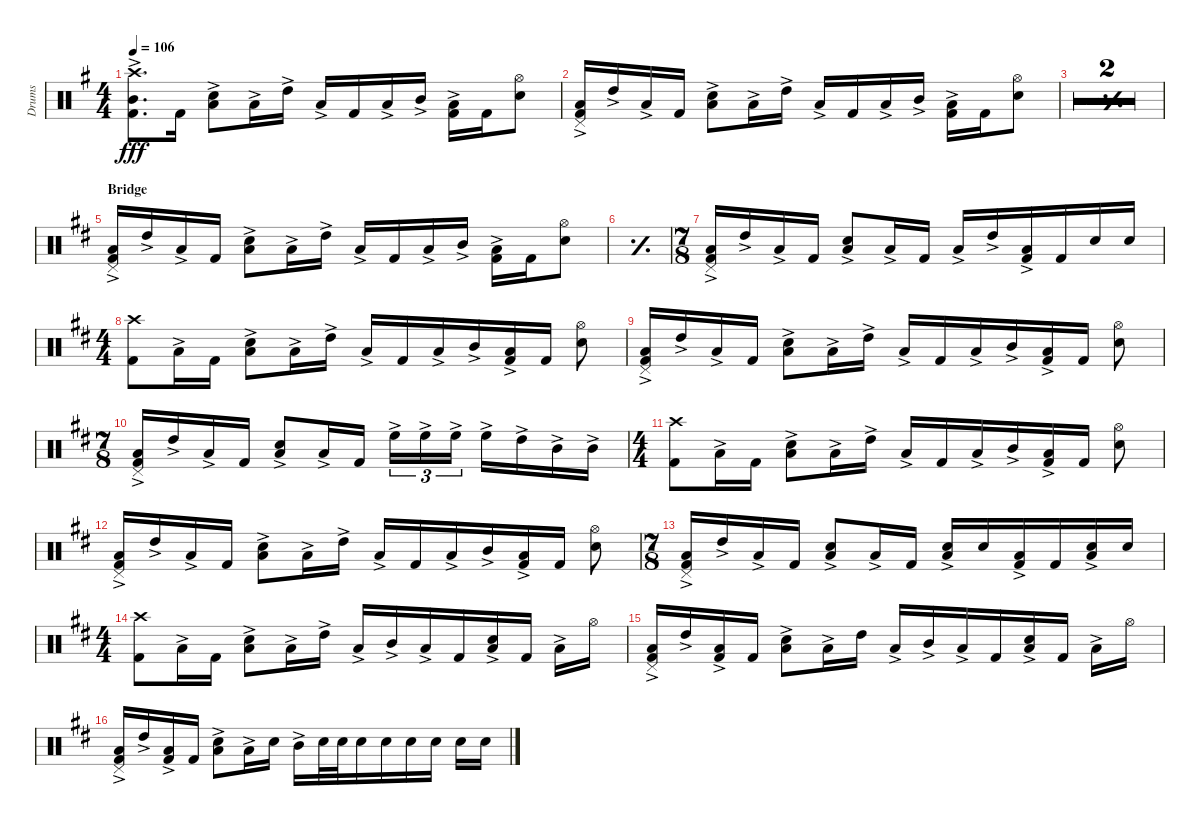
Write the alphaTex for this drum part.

\defaultSystemsLayout 4
\bracketExtendMode groupsimilarinstruments
\otherSystemsTrackNameOrientation horizontal
\track ("Drumkit" "Drums") {multiBarRest instrument percussion}
\staff {score}
\articulation defaults
\ts (4 4)
\tempo 106
\clef neutral
\ks g
("Kick (hit) 2"{acc forcenatural} "Mid Tom (hit)"{ac acc forcenatural} "Crash high (hit)"{acc forcenatural}).8{d dy fff} "Kick (hit) 2"{acc forcenatural}.16 ("Snare (hit) 2"{acc forcenatural} "Low Tom (hit)"{ac acc forcenatural}).8 "Low Tom (hit)"{ac acc forcenatural}.16 "High Tom (hit)"{ac acc forcenatural}.16 "Low Tom (hit)"{ac acc forcenatural}.16 "Kick (hit) 2"{acc forcenatural}.16 "Low Tom (hit)"{ac acc forcenatural}.16 "Mid Tom (hit)"{ac acc forcenatural}.16 ("Kick (hit) 2"{acc forcenatural} "Low Tom (hit)"{ac acc forcenatural}).16 "Kick (hit) 2"{acc forcenatural}.16 ("Snare (hit) 2"{acc forcenatural} "Hi-Hat (open)"{acc forcenatural}).8 |
("Kick (hit) 2"{acc forcenatural} "Low Tom (hit)"{ac acc forcenatural} "Pedal Hi-Hat (hit)"{acc forcenatural}).16 "High Tom (hit)"{ac acc forcenatural}.16 "Low Tom (hit)"{ac acc forcenatural}.16 "Kick (hit) 2"{acc forcenatural}.16 ("Snare (hit) 2"{acc forcenatural} "Low Tom (hit)"{ac acc forcenatural}).8 "Low Tom (hit)"{ac acc forcenatural}.16 "High Tom (hit)"{ac acc forcenatural}.16 "Low Tom (hit)"{ac acc forcenatural}.16 "Kick (hit) 2"{acc forcenatural}.16 "Low Tom (hit)"{ac acc forcenatural}.16 "Mid Tom (hit)"{ac acc forcenatural}.16 ("Kick (hit) 2"{acc forcenatural} "Low Tom (hit)"{ac acc forcenatural}).16 "Kick (hit) 2"{acc forcenatural}.16 ("Snare (hit) 2"{acc forcenatural} "Hi-Hat (open)"{acc forcenatural}).8 |
\simile simple
|
|
\section ("" "Bridge")
\simile none
\ks d
("Kick (hit) 2"{acc forcenatural} "Low Tom (hit)"{ac acc forcenatural} "Pedal Hi-Hat (hit)"{acc forcenatural}).16 "High Tom (hit)"{ac acc forcenatural}.16 "Low Tom (hit)"{ac acc forcenatural}.16 "Kick (hit) 2"{acc forcenatural}.16 ("Snare (hit) 2"{acc forcenatural} "Low Tom (hit)"{ac acc forcenatural}).8 "Low Tom (hit)"{ac acc forcenatural}.16 "High Tom (hit)"{ac acc forcenatural}.16 "Low Tom (hit)"{ac acc forcenatural}.16 "Kick (hit) 2"{acc forcenatural}.16 "Low Tom (hit)"{ac acc forcenatural}.16 "Mid Tom (hit)"{ac acc forcenatural}.16 ("Kick (hit) 2"{acc forcenatural} "Low Tom (hit)"{ac acc forcenatural}).16 "Kick (hit) 2"{acc forcenatural}.16 ("Snare (hit) 2"{acc forcenatural} "Hi-Hat (open)"{acc forcenatural}).8 |
\simile simple
|
\ts (7 8)
\beaming (8 2 2 3)
\simile none
("Kick (hit) 2"{acc forcenatural} "Low Tom (hit)"{ac acc forcenatural} "Pedal Hi-Hat (hit)"{acc forcenatural}).16 "High Tom (hit)"{ac acc forcenatural}.16 "Low Tom (hit)"{ac acc forcenatural}.16 "Kick (hit) 2"{acc forcenatural}.16 ("Snare (hit) 2"{acc forcenatural} "Low Tom (hit)"{ac acc forcenatural}).8 "Low Tom (hit)"{ac acc forcenatural}.16 "Kick (hit) 2"{acc forcenatural}.16 "Low Tom (hit)"{ac acc forcenatural}.16 "High Tom (hit)"{ac acc forcenatural}.16 ("Low Tom (hit)"{ac acc forcenatural} "Kick (hit) 2"{acc forcenatural}).16 "Kick (hit) 2"{acc forcenatural}.16 "Snare (hit) 2"{acc forcenatural}.16 "Snare (hit) 2"{acc forcenatural}.16 |
\ts (4 4)
("Kick (hit) 2"{acc forcenatural} "Crash high (hit)"{acc forcenatural}).8 "Low Tom (hit)"{ac acc forcenatural}.16 "Kick (hit) 2"{acc forcenatural}.16 ("Snare (hit) 2"{acc forcenatural} "Low Tom (hit)"{ac acc forcenatural}).8 "Low Tom (hit)"{ac acc forcenatural}.16 "High Tom (hit)"{ac acc forcenatural}.16 "Low Tom (hit)"{ac acc forcenatural}.16 "Kick (hit) 2"{acc forcenatural}.16 "Low Tom (hit)"{ac acc forcenatural}.16 "Mid Tom (hit)"{ac acc forcenatural}.16 ("Kick (hit) 2"{acc forcenatural} "Low Tom (hit)"{ac acc forcenatural}).16 "Kick (hit) 2"{acc forcenatural}.16 ("Snare (hit) 2"{acc forcenatural} "Hi-Hat (open)"{acc forcenatural}).8 |
("Kick (hit) 2"{acc forcenatural} "Low Tom (hit)"{ac acc forcenatural} "Pedal Hi-Hat (hit)"{acc forcenatural}).16 "High Tom (hit)"{ac acc forcenatural}.16 "Low Tom (hit)"{ac acc forcenatural}.16 "Kick (hit) 2"{acc forcenatural}.16 ("Snare (hit) 2"{acc forcenatural} "Low Tom (hit)"{ac acc forcenatural}).8 "Low Tom (hit)"{ac acc forcenatural}.16 "High Tom (hit)"{ac acc forcenatural}.16 "Low Tom (hit)"{ac acc forcenatural}.16 "Kick (hit) 2"{acc forcenatural}.16 "Low Tom (hit)"{ac acc forcenatural}.16 "Mid Tom (hit)"{ac acc forcenatural}.16 ("Kick (hit) 2"{acc forcenatural} "Low Tom (hit)"{ac acc forcenatural}).16 "Kick (hit) 2"{acc forcenatural}.16 ("Snare (hit) 2"{acc forcenatural} "Hi-Hat (open)"{acc forcenatural}).8 |
\ts (7 8)
("Kick (hit) 2"{acc forcenatural} "Low Tom (hit)"{ac acc forcenatural} "Pedal Hi-Hat (hit)"{acc forcenatural}).16 "High Tom (hit)"{ac acc forcenatural}.16 "Low Tom (hit)"{ac acc forcenatural}.16 "Kick (hit) 2"{acc forcenatural}.16 ("Snare (hit) 2"{acc forcenatural} "Low Tom (hit)"{ac acc forcenatural}).8 "Low Tom (hit)"{ac acc forcenatural}.16 "Kick (hit) 2"{acc forcenatural}.16 "High Floor Tom (hit)"{ac acc forcenatural}.16{tu (3 2)} "High Floor Tom (hit)"{ac acc forcenatural}.16{tu (3 2)} "High Floor Tom (hit)"{ac acc forcenatural}.16{tu (3 2) beam splitsecondary} "High Floor Tom (hit)"{ac acc forcenatural}.16 "High Tom (hit)"{ac acc forcenatural}.16 "Mid Tom (hit)"{ac acc forcenatural}.16 "Mid Tom (hit)"{ac acc forcenatural}.16 |
\ts (4 4)
("Kick (hit) 2"{acc forcenatural} "Crash high (hit)"{acc forcenatural}).8 "Low Tom (hit)"{ac acc forcenatural}.16 "Kick (hit) 2"{acc forcenatural}.16 ("Snare (hit) 2"{acc forcenatural} "Low Tom (hit)"{ac acc forcenatural}).8 "Low Tom (hit)"{ac acc forcenatural}.16 "High Tom (hit)"{ac acc forcenatural}.16 "Low Tom (hit)"{ac acc forcenatural}.16 "Kick (hit) 2"{acc forcenatural}.16 "Low Tom (hit)"{ac acc forcenatural}.16 "Mid Tom (hit)"{ac acc forcenatural}.16 ("Kick (hit) 2"{acc forcenatural} "Low Tom (hit)"{ac acc forcenatural}).16 "Kick (hit) 2"{acc forcenatural}.16 ("Snare (hit) 2"{acc forcenatural} "Hi-Hat (open)"{acc forcenatural}).8 |
("Kick (hit) 2"{acc forcenatural} "Low Tom (hit)"{ac acc forcenatural} "Pedal Hi-Hat (hit)"{acc forcenatural}).16 "High Tom (hit)"{ac acc forcenatural}.16 "Low Tom (hit)"{ac acc forcenatural}.16 "Kick (hit) 2"{acc forcenatural}.16 ("Snare (hit) 2"{acc forcenatural} "Low Tom (hit)"{ac acc forcenatural}).8 "Low Tom (hit)"{ac acc forcenatural}.16 "High Tom (hit)"{ac acc forcenatural}.16 "Low Tom (hit)"{ac acc forcenatural}.16 "Kick (hit) 2"{acc forcenatural}.16 "Low Tom (hit)"{ac acc forcenatural}.16 "Mid Tom (hit)"{ac acc forcenatural}.16 ("Kick (hit) 2"{acc forcenatural} "Low Tom (hit)"{ac acc forcenatural}).16 "Kick (hit) 2"{acc forcenatural}.16 ("Snare (hit) 2"{acc forcenatural} "Hi-Hat (open)"{acc forcenatural}).8 |
\ts (7 8)
("Kick (hit) 2"{acc forcenatural} "Low Tom (hit)"{ac acc forcenatural} "Pedal Hi-Hat (hit)"{acc forcenatural}).16 "High Tom (hit)"{ac acc forcenatural}.16 "Low Tom (hit)"{ac acc forcenatural}.16 "Kick (hit) 2"{acc forcenatural}.16 ("Snare (hit) 2"{acc forcenatural} "Low Tom (hit)"{ac acc forcenatural}).8 "Low Tom (hit)"{ac acc forcenatural}.16 "Kick (hit) 2"{acc forcenatural}.16 ("Low Tom (hit)"{ac acc forcenatural} "Snare (hit) 2"{acc forcenatural}).16 "Snare (hit) 2"{acc forcenatural}.16 ("Low Tom (hit)"{ac acc forcenatural} "Kick (hit) 2"{acc forcenatural}).16 "Kick (hit) 2"{acc forcenatural}.16 ("Snare (hit) 2"{acc forcenatural} "Low Tom (hit)"{ac acc forcenatural}).16 "Snare (hit) 2"{acc forcenatural}.16 |
\ts (4 4)
("Kick (hit) 2"{acc forcenatural} "Crash high (hit)"{acc forcenatural}).8 "Low Tom (hit)"{ac acc forcenatural}.16 "Kick (hit) 2"{acc forcenatural}.16 ("Snare (hit) 2"{acc forcenatural} "Low Tom (hit)"{ac acc forcenatural}).8 "Low Tom (hit)"{ac acc forcenatural}.16 "High Tom (hit)"{ac acc forcenatural}.16 "Low Tom (hit)"{ac acc forcenatural}.16 "Mid Tom (hit)"{ac acc forcenatural}.16 "Low Tom (hit)"{ac acc forcenatural}.16 "Kick (hit) 2"{acc forcenatural}.16 ("Low Tom (hit)"{ac acc forcenatural} "Snare (hit) 2"{acc forcenatural}).16 "Kick (hit) 2"{acc forcenatural}.16 "Low Tom (hit)"{ac acc forcenatural}.16 "Hi-Hat (open)"{acc forcenatural}.16 |
("Kick (hit) 2"{acc forcenatural} "Low Tom (hit)"{ac acc forcenatural} "Pedal Hi-Hat (hit)"{acc forcenatural}).16 "High Tom (hit)"{ac acc forcenatural}.16 ("Low Tom (hit)"{ac acc forcenatural} "Kick (hit) 2"{acc forcenatural}).16 "Kick (hit) 2"{acc forcenatural}.16 ("Snare (hit) 2"{acc forcenatural} "Low Tom (hit)"{ac acc forcenatural}).8 "Low Tom (hit)"{ac acc forcenatural}.16 "High Tom (hit)"{acc forcenatural}.16 "Low Tom (hit)"{ac acc forcenatural}.16 "Mid Tom (hit)"{ac acc forcenatural}.16 "Low Tom (hit)"{ac acc forcenatural}.16 "Kick (hit) 2"{acc forcenatural}.16 ("Low Tom (hit)"{ac acc forcenatural} "Snare (hit) 2"{acc forcenatural}).16 "Kick (hit) 2"{acc forcenatural}.16 "Low Tom (hit)"{ac acc forcenatural}.16 "Hi-Hat (open)"{acc forcenatural}.16 |
("Kick (hit) 2"{acc forcenatural} "Pedal Hi-Hat (hit)"{acc forcenatural} "Low Tom (hit)"{ac acc forcenatural}).16 "High Tom (hit)"{ac acc forcenatural}.16 ("Low Tom (hit)"{ac acc forcenatural} "Kick (hit) 2"{acc forcenatural}).16 "Kick (hit) 2"{acc forcenatural}.16 ("Snare (hit) 2"{acc forcenatural} "Low Tom (hit)"{ac acc forcenatural}).8 "Low Tom (hit)"{ac acc forcenatural}.16 "Snare (hit) 2"{acc forcenatural}.16 "Mid Tom (hit)"{ac acc forcenatural}.16 "Snare (hit) 2"{acc forcenatural}.32 "Snare (hit) 2"{acc forcenatural}.32 "Snare (hit) 2"{acc forcenatural}.16 "Snare (hit) 2"{acc forcenatural}.16 "Snare (hit) 2"{acc forcenatural}.16 "Snare (hit) 2"{acc forcenatural}.16 "Snare (hit) 2"{acc forcenatural}.16 "Snare (hit) 2"{acc forcenatural}.16
